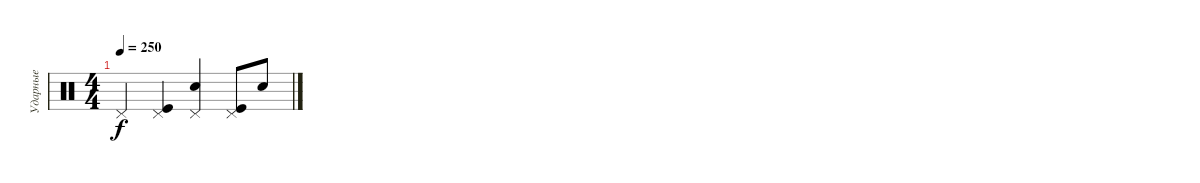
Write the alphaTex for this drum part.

\track ("Ударные" "Ударные") {instrument percussion}
\staff {score}
\articulation defaults
\ts (4 4)
\tempo 250
\clef neutral
\ks c "Pedal Hi-Hat (hit)".4{dy f}
("Kick (hit)" "Pedal Hi-Hat (hit)").4 ("Electric Snare (hit)" "Pedal Hi-Hat (hit)").4 ("Kick (hit)" "Pedal Hi-Hat (hit)").8 "Electric Snare (hit)".8
